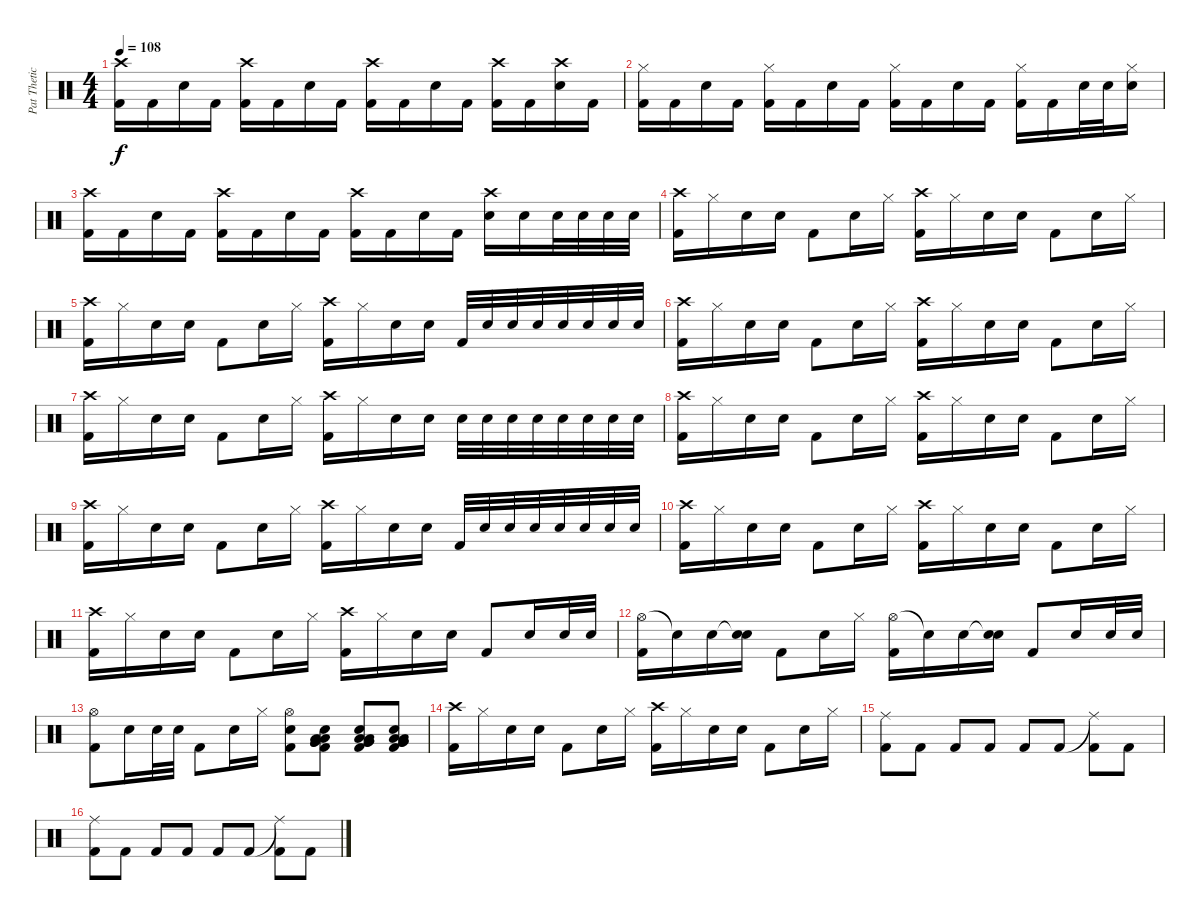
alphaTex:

\track ("Pat Thetic" "Pat Thetic") {instrument percussion}
\staff {score}
\articulation defaults
\ts (4 4)
\tempo 108
\clef neutral
\ks c
("Crash high (hit)" "Kick (hit) 2").16{dy f} "Kick (hit) 2".16 "Snare (hit) 2".16 "Kick (hit) 2".16 ("Crash high (hit)" "Kick (hit) 2").16 "Kick (hit) 2".16 "Snare (hit) 2".16 "Kick (hit) 2".16 ("Crash high (hit)" "Kick (hit) 2").16 "Kick (hit) 2".16 "Snare (hit) 2".16 "Kick (hit) 2".16 ("Crash high (hit)" "Kick (hit) 2").16 "Kick (hit) 2".16 ("Crash high (hit)" "Snare (hit) 2").16 "Kick (hit) 2".16 |
("Hi-Hat (closed)" "Kick (hit) 2").16 "Kick (hit) 2".16 "Snare (hit) 2".16 "Kick (hit) 2".16 ("Hi-Hat (closed)" "Kick (hit) 2").16 "Kick (hit) 2".16 "Snare (hit) 2".16 "Kick (hit) 2".16 ("Hi-Hat (closed)" "Kick (hit) 2").16 "Kick (hit) 2".16 "Snare (hit) 2".16 "Kick (hit) 2".16 ("Hi-Hat (closed)" "Kick (hit) 2").16 "Kick (hit) 2".16 "Snare (hit) 2".32 "Snare (hit) 2".32 ("Hi-Hat (closed)" "Snare (hit) 2").16 |
("Crash high (hit)" "Kick (hit) 2").16 "Kick (hit) 2".16 "Snare (hit) 2".16 "Kick (hit) 2".16 ("Crash high (hit)" "Kick (hit) 2").16 "Kick (hit) 2".16 "Snare (hit) 2".16 "Kick (hit) 2".16 ("Crash high (hit)" "Kick (hit) 2").16 "Kick (hit) 2".16 "Snare (hit) 2".16 "Kick (hit) 2".16 ("Crash high (hit)" "Snare (hit) 2").16 "Snare (hit) 2".16 "Snare (hit) 2".32 "Snare (hit) 2".32 "Snare (hit) 2".32 "Snare (hit) 2".32 |
("Crash high (hit)" "Kick (hit) 2").16 "Hi-Hat (closed)".16 "Snare (hit) 2".16 "Snare (hit) 2".16 "Kick (hit) 2".8 "Snare (hit) 2".16 "Hi-Hat (closed)".16 ("Crash high (hit)" "Kick (hit) 2").16 "Hi-Hat (closed)".16 "Snare (hit) 2".16 "Snare (hit) 2".16 "Kick (hit) 2".8 "Snare (hit) 2".16 "Hi-Hat (closed)".16 |
("Crash high (hit)" "Kick (hit) 2").16 "Hi-Hat (closed)".16 "Snare (hit) 2".16 "Snare (hit) 2".16 "Kick (hit) 2".8 "Snare (hit) 2".16 "Hi-Hat (closed)".16 ("Crash high (hit)" "Kick (hit) 2").16 "Hi-Hat (closed)".16 "Snare (hit) 2".16 "Snare (hit) 2".16 "Kick (hit) 2".32 "Snare (hit) 2".32 "Snare (hit) 2".32 "Snare (hit) 2".32 "Snare (hit) 2".32 "Snare (hit) 2".32 "Snare (hit) 2".32 "Snare (hit) 2".32 |
("Crash high (hit)" "Kick (hit) 2").16 "Hi-Hat (closed)".16 "Snare (hit) 2".16 "Snare (hit) 2".16 "Kick (hit) 2".8 "Snare (hit) 2".16 "Hi-Hat (closed)".16 ("Crash high (hit)" "Kick (hit) 2").16 "Hi-Hat (closed)".16 "Snare (hit) 2".16 "Snare (hit) 2".16 "Kick (hit) 2".8 "Snare (hit) 2".16 "Hi-Hat (closed)".16 |
("Crash high (hit)" "Kick (hit) 2").16 "Hi-Hat (closed)".16 "Snare (hit) 2".16 "Snare (hit) 2".16 "Kick (hit) 2".8 "Snare (hit) 2".16 "Hi-Hat (closed)".16 ("Crash high (hit)" "Kick (hit) 2").16 "Hi-Hat (closed)".16 "Snare (hit) 2".16 "Snare (hit) 2".16 "Snare (hit) 2".32 "Snare (hit) 2".32 "Snare (hit) 2".32 "Snare (hit) 2".32 "Snare (hit) 2".32 "Snare (hit) 2".32 "Snare (hit) 2".32 "Snare (hit) 2".32 |
("Crash high (hit)" "Kick (hit) 2").16 "Hi-Hat (closed)".16 "Snare (hit) 2".16 "Snare (hit) 2".16 "Kick (hit) 2".8 "Snare (hit) 2".16 "Hi-Hat (closed)".16 ("Crash high (hit)" "Kick (hit) 2").16 "Hi-Hat (closed)".16 "Snare (hit) 2".16 "Snare (hit) 2".16 "Kick (hit) 2".8 "Snare (hit) 2".16 "Hi-Hat (closed)".16 |
("Crash high (hit)" "Kick (hit) 2").16 "Hi-Hat (closed)".16 "Snare (hit) 2".16 "Snare (hit) 2".16 "Kick (hit) 2".8 "Snare (hit) 2".16 "Hi-Hat (closed)".16 ("Crash high (hit)" "Kick (hit) 2").16 "Hi-Hat (closed)".16 "Snare (hit) 2".16 "Snare (hit) 2".16 "Kick (hit) 2".32 "Snare (hit) 2".32 "Snare (hit) 2".32 "Snare (hit) 2".32 "Snare (hit) 2".32 "Snare (hit) 2".32 "Snare (hit) 2".32 "Snare (hit) 2".32 |
("Crash high (hit)" "Kick (hit) 2").16 "Hi-Hat (closed)".16 "Snare (hit) 2".16 "Snare (hit) 2".16 "Kick (hit) 2".8 "Snare (hit) 2".16 "Hi-Hat (closed)".16 ("Crash high (hit)" "Kick (hit) 2").16 "Hi-Hat (closed)".16 "Snare (hit) 2".16 "Snare (hit) 2".16 "Kick (hit) 2".8 "Snare (hit) 2".16 "Hi-Hat (closed)".16 |
("Crash high (hit)" "Kick (hit) 2").16 "Hi-Hat (closed)".16 "Snare (hit) 2".16 "Snare (hit) 2".16 "Kick (hit) 2".8 "Snare (hit) 2".16 "Hi-Hat (closed)".16 ("Crash high (hit)" "Kick (hit) 2").16 "Hi-Hat (closed)".16 "Snare (hit) 2".16 "Snare (hit) 2".16 "Kick (hit) 2".8 "Snare (hit) 2".16 "Snare (hit) 2".32 "Snare (hit) 2".32 |
("Hi-Hat (open)" "Kick (hit) 2").16 "Snare (hit)"{t}.16 "Snare (hit) 2".16 ("Snare (hit)"{t} "Snare (hit) 2").16 "Kick (hit) 2".8 "Snare (hit) 2".16 "Hi-Hat (closed)".16 ("Hi-Hat (open)" "Kick (hit) 2").16 "Snare (hit)"{t}.16 "Snare (hit) 2".16 ("Snare (hit)"{t} "Snare (hit) 2").16 "Kick (hit) 2".8 "Snare (hit) 2".16 "Snare (hit) 2".32 "Snare (hit) 2".32 |
("Hi-Hat (open)" "Kick (hit) 2").8 "Snare (hit) 2".16 "Snare (hit) 2".32 "Snare (hit) 2".32 "Kick (hit) 2".8 "Snare (hit) 2".16 "Hi-Hat (closed)".16 ("Snare (hit) 2" "Hi-Hat (open)" "Kick (hit) 2").8 ("Low Floor Tom (hit)" "Low Floor Tom (hit)" "Kick (hit) 2" "Very Low Tom (hit)" "Very Low Tom (hit)" "Snare (hit) 2").8 ("Low Floor Tom (hit)" "Low Floor Tom (hit)" "Kick (hit) 2" "Very Low Tom (hit)" "Very Low Tom (hit)" "Snare (hit) 2").8 ("Low Floor Tom (hit)" "Low Floor Tom (hit)" "Kick (hit) 2" "Very Low Tom (hit)" "Very Low Tom (hit)" "Snare (hit) 2").8 |
("Crash high (hit)" "Kick (hit) 2").16 "Hi-Hat (closed)".16 "Snare (hit) 2".16 "Snare (hit) 2".16 "Kick (hit) 2".8 "Snare (hit) 2".16 "Hi-Hat (closed)".16 ("Crash high (hit)" "Kick (hit) 2").16 "Hi-Hat (closed)".16 "Snare (hit) 2".16 "Snare (hit) 2".16 "Kick (hit) 2".8 "Snare (hit) 2".16 "Hi-Hat (closed)".16 |
("Ride (middle)" "Kick (hit) 2").8 "Kick (hit) 2".8 "Kick (hit) 2".8 "Kick (hit) 2".8 "Kick (hit) 2".8 "Kick (hit) 2".8 ("Ride (middle)"{t} "Kick (hit) 2").8 "Kick (hit) 2".8 |
("Ride (middle)" "Kick (hit) 2").8 "Kick (hit) 2".8 "Kick (hit) 2".8 "Kick (hit) 2".8 "Kick (hit) 2".8 "Kick (hit) 2".8 ("Ride (middle)"{t} "Kick (hit) 2").8 "Kick (hit) 2".8
